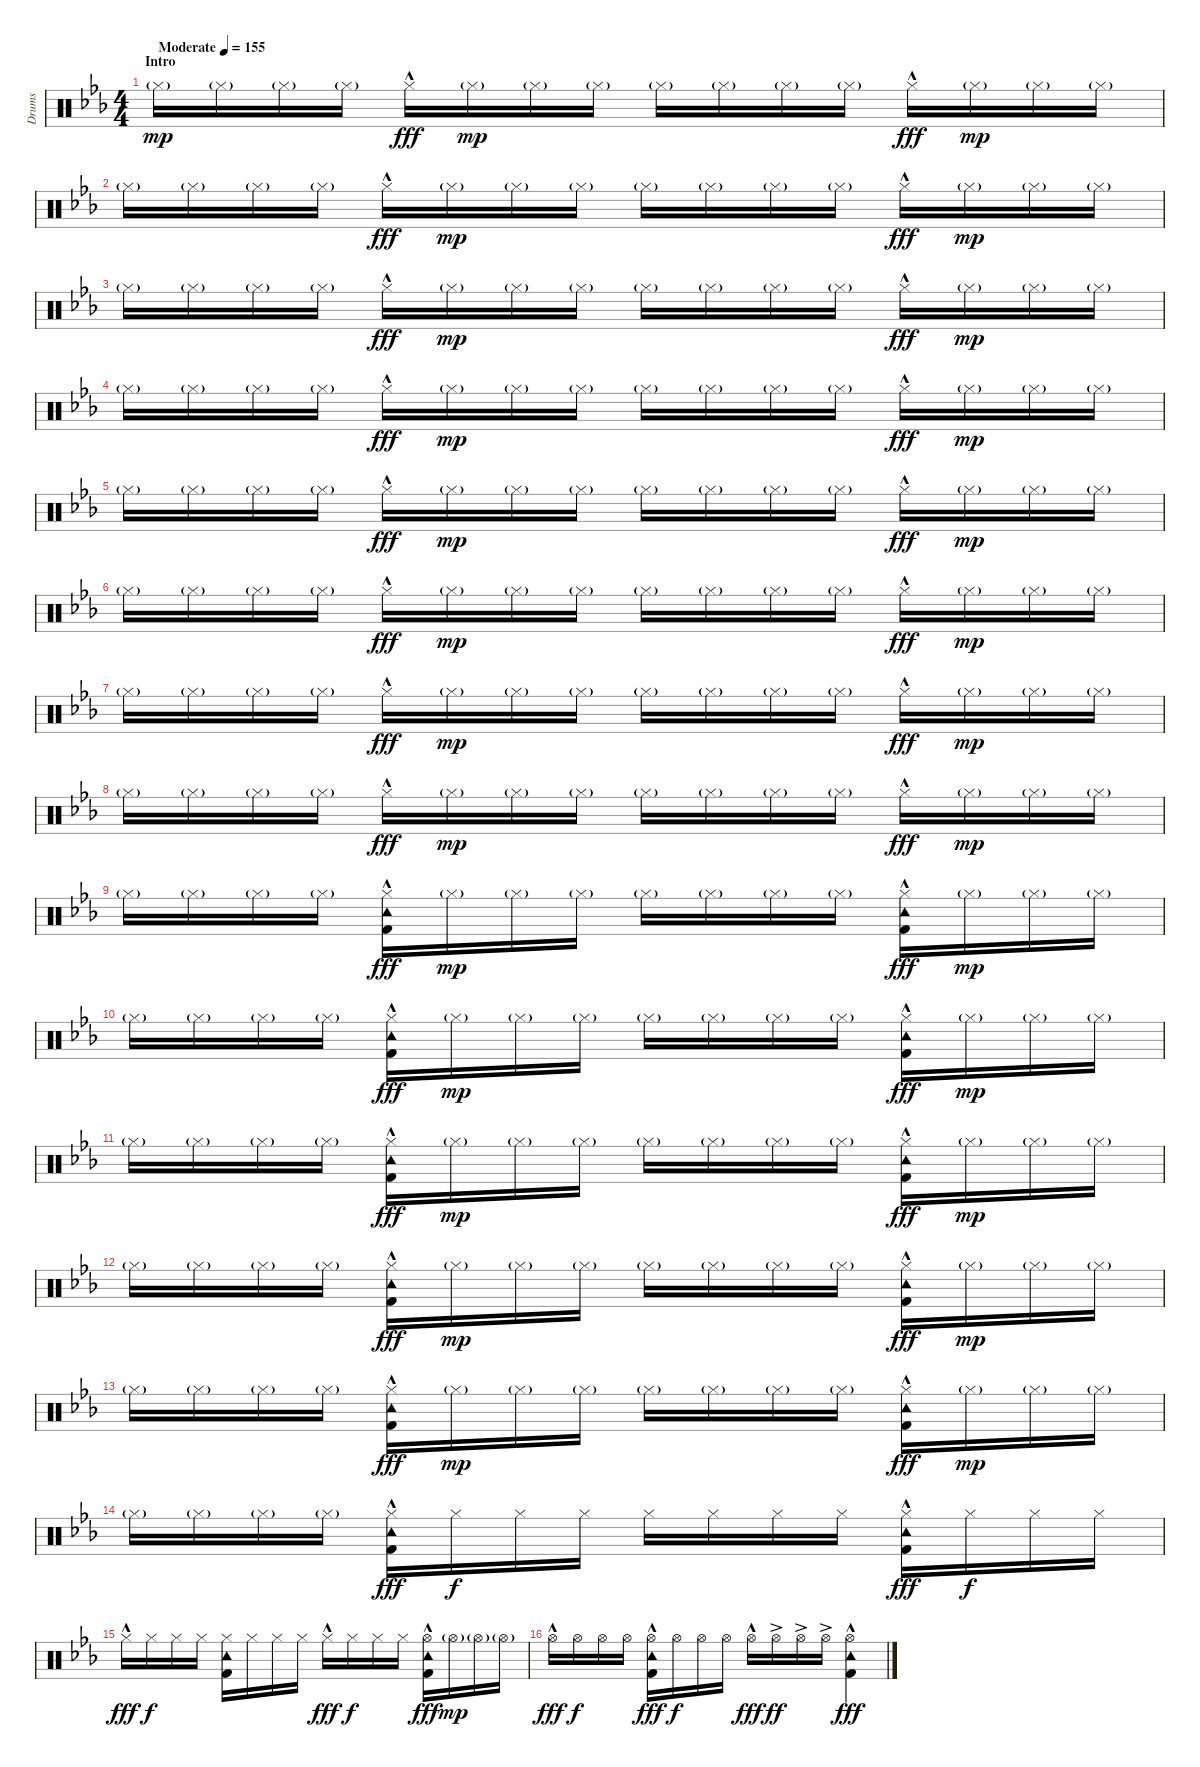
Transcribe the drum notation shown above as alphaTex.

\track ("Drums" "Drums") {instrument percussion}
\staff {score}
\articulation defaults
\ts (4 4)
\section ("" "Intro")
\tempo (155 "Moderate")
\clef neutral
\ks eb "Hi-Hat (closed)"{g}.16{dy mp} "Hi-Hat (closed)"{g}.16 "Hi-Hat (closed)"{g}.16 "Hi-Hat (closed)"{g}.16 "Hi-Hat (closed)"{hac}.16{dy fff} "Hi-Hat (closed)"{g}.16{dy mp} "Hi-Hat (closed)"{g}.16 "Hi-Hat (closed)"{g}.16 "Hi-Hat (closed)"{g}.16 "Hi-Hat (closed)"{g}.16 "Hi-Hat (closed)"{g}.16 "Hi-Hat (closed)"{g}.16 "Hi-Hat (closed)"{hac}.16{dy fff} "Hi-Hat (closed)"{g}.16{dy mp} "Hi-Hat (closed)"{g}.16 "Hi-Hat (closed)"{g}.16
|
"Hi-Hat (closed)"{g}.16 "Hi-Hat (closed)"{g}.16 "Hi-Hat (closed)"{g}.16 "Hi-Hat (closed)"{g}.16 "Hi-Hat (closed)"{hac}.16{dy fff} "Hi-Hat (closed)"{g}.16{dy mp} "Hi-Hat (closed)"{g}.16 "Hi-Hat (closed)"{g}.16 "Hi-Hat (closed)"{g}.16 "Hi-Hat (closed)"{g}.16 "Hi-Hat (closed)"{g}.16 "Hi-Hat (closed)"{g}.16 "Hi-Hat (closed)"{hac}.16{dy fff} "Hi-Hat (closed)"{g}.16{dy mp} "Hi-Hat (closed)"{g}.16 "Hi-Hat (closed)"{g}.16 |
"Hi-Hat (closed)"{g}.16 "Hi-Hat (closed)"{g}.16 "Hi-Hat (closed)"{g}.16 "Hi-Hat (closed)"{g}.16 "Hi-Hat (closed)"{hac}.16{dy fff} "Hi-Hat (closed)"{g}.16{dy mp} "Hi-Hat (closed)"{g}.16 "Hi-Hat (closed)"{g}.16 "Hi-Hat (closed)"{g}.16 "Hi-Hat (closed)"{g}.16 "Hi-Hat (closed)"{g}.16 "Hi-Hat (closed)"{g}.16 "Hi-Hat (closed)"{hac}.16{dy fff} "Hi-Hat (closed)"{g}.16{dy mp} "Hi-Hat (closed)"{g}.16 "Hi-Hat (closed)"{g}.16 |
"Hi-Hat (closed)"{g}.16 "Hi-Hat (closed)"{g}.16 "Hi-Hat (closed)"{g}.16 "Hi-Hat (closed)"{g}.16 "Hi-Hat (closed)"{hac}.16{dy fff} "Hi-Hat (closed)"{g}.16{dy mp} "Hi-Hat (closed)"{g}.16 "Hi-Hat (closed)"{g}.16 "Hi-Hat (closed)"{g}.16 "Hi-Hat (closed)"{g}.16 "Hi-Hat (closed)"{g}.16 "Hi-Hat (closed)"{g}.16 "Hi-Hat (closed)"{hac}.16{dy fff} "Hi-Hat (closed)"{g}.16{dy mp} "Hi-Hat (closed)"{g}.16 "Hi-Hat (closed)"{g}.16 |
"Hi-Hat (closed)"{g}.16 "Hi-Hat (closed)"{g}.16 "Hi-Hat (closed)"{g}.16 "Hi-Hat (closed)"{g}.16 "Hi-Hat (closed)"{hac}.16{dy fff} "Hi-Hat (closed)"{g}.16{dy mp} "Hi-Hat (closed)"{g}.16 "Hi-Hat (closed)"{g}.16 "Hi-Hat (closed)"{g}.16 "Hi-Hat (closed)"{g}.16 "Hi-Hat (closed)"{g}.16 "Hi-Hat (closed)"{g}.16 "Hi-Hat (closed)"{hac}.16{dy fff} "Hi-Hat (closed)"{g}.16{dy mp} "Hi-Hat (closed)"{g}.16 "Hi-Hat (closed)"{g}.16 |
"Hi-Hat (closed)"{g}.16 "Hi-Hat (closed)"{g}.16 "Hi-Hat (closed)"{g}.16 "Hi-Hat (closed)"{g}.16 "Hi-Hat (closed)"{hac}.16{dy fff} "Hi-Hat (closed)"{g}.16{dy mp} "Hi-Hat (closed)"{g}.16 "Hi-Hat (closed)"{g}.16 "Hi-Hat (closed)"{g}.16 "Hi-Hat (closed)"{g}.16 "Hi-Hat (closed)"{g}.16 "Hi-Hat (closed)"{g}.16 "Hi-Hat (closed)"{hac}.16{dy fff} "Hi-Hat (closed)"{g}.16{dy mp} "Hi-Hat (closed)"{g}.16 "Hi-Hat (closed)"{g}.16 |
"Hi-Hat (closed)"{g}.16 "Hi-Hat (closed)"{g}.16 "Hi-Hat (closed)"{g}.16 "Hi-Hat (closed)"{g}.16 "Hi-Hat (closed)"{hac}.16{dy fff} "Hi-Hat (closed)"{g}.16{dy mp} "Hi-Hat (closed)"{g}.16 "Hi-Hat (closed)"{g}.16 "Hi-Hat (closed)"{g}.16 "Hi-Hat (closed)"{g}.16 "Hi-Hat (closed)"{g}.16 "Hi-Hat (closed)"{g}.16 "Hi-Hat (closed)"{hac}.16{dy fff} "Hi-Hat (closed)"{g}.16{dy mp} "Hi-Hat (closed)"{g}.16 "Hi-Hat (closed)"{g}.16 |
"Hi-Hat (closed)"{g}.16 "Hi-Hat (closed)"{g}.16 "Hi-Hat (closed)"{g}.16 "Hi-Hat (closed)"{g}.16 "Hi-Hat (closed)"{hac}.16{dy fff} "Hi-Hat (closed)"{g}.16{dy mp} "Hi-Hat (closed)"{g}.16 "Hi-Hat (closed)"{g}.16 "Hi-Hat (closed)"{g}.16 "Hi-Hat (closed)"{g}.16 "Hi-Hat (closed)"{g}.16 "Hi-Hat (closed)"{g}.16 "Hi-Hat (closed)"{hac}.16{dy fff} "Hi-Hat (closed)"{g}.16{dy mp} "Hi-Hat (closed)"{g}.16 "Hi-Hat (closed)"{g}.16 |
"Hi-Hat (closed)"{g}.16 "Hi-Hat (closed)"{g}.16 "Hi-Hat (closed)"{g}.16 "Hi-Hat (closed)"{g}.16 ("Tambourine (hit)" "Hi-Hat (closed)"{hac} "Kick (hit) 2").16{dy fff} "Hi-Hat (closed)"{g}.16{dy mp} "Hi-Hat (closed)"{g}.16 "Hi-Hat (closed)"{g}.16 "Hi-Hat (closed)"{g}.16 "Hi-Hat (closed)"{g}.16 "Hi-Hat (closed)"{g}.16 "Hi-Hat (closed)"{g}.16 ("Tambourine (hit)" "Hi-Hat (closed)"{hac} "Kick (hit) 2").16{dy fff} "Hi-Hat (closed)"{g}.16{dy mp} "Hi-Hat (closed)"{g}.16 "Hi-Hat (closed)"{g}.16 |
"Hi-Hat (closed)"{g}.16 "Hi-Hat (closed)"{g}.16 "Hi-Hat (closed)"{g}.16 "Hi-Hat (closed)"{g}.16 ("Tambourine (hit)" "Hi-Hat (closed)"{hac} "Kick (hit) 2").16{dy fff} "Hi-Hat (closed)"{g}.16{dy mp} "Hi-Hat (closed)"{g}.16 "Hi-Hat (closed)"{g}.16 "Hi-Hat (closed)"{g}.16 "Hi-Hat (closed)"{g}.16 "Hi-Hat (closed)"{g}.16 "Hi-Hat (closed)"{g}.16 ("Tambourine (hit)" "Hi-Hat (closed)"{hac} "Kick (hit) 2").16{dy fff} "Hi-Hat (closed)"{g}.16{dy mp} "Hi-Hat (closed)"{g}.16 "Hi-Hat (closed)"{g}.16 |
"Hi-Hat (closed)"{g}.16 "Hi-Hat (closed)"{g}.16 "Hi-Hat (closed)"{g}.16 "Hi-Hat (closed)"{g}.16 ("Tambourine (hit)" "Hi-Hat (closed)"{hac} "Kick (hit) 2").16{dy fff} "Hi-Hat (closed)"{g}.16{dy mp} "Hi-Hat (closed)"{g}.16 "Hi-Hat (closed)"{g}.16 "Hi-Hat (closed)"{g}.16 "Hi-Hat (closed)"{g}.16 "Hi-Hat (closed)"{g}.16 "Hi-Hat (closed)"{g}.16 ("Tambourine (hit)" "Hi-Hat (closed)"{hac} "Kick (hit) 2").16{dy fff} "Hi-Hat (closed)"{g}.16{dy mp} "Hi-Hat (closed)"{g}.16 "Hi-Hat (closed)"{g}.16 |
"Hi-Hat (closed)"{g}.16 "Hi-Hat (closed)"{g}.16 "Hi-Hat (closed)"{g}.16 "Hi-Hat (closed)"{g}.16 ("Tambourine (hit)" "Hi-Hat (closed)"{hac} "Kick (hit) 2").16{dy fff} "Hi-Hat (closed)"{g}.16{dy mp} "Hi-Hat (closed)"{g}.16 "Hi-Hat (closed)"{g}.16 "Hi-Hat (closed)"{g}.16 "Hi-Hat (closed)"{g}.16 "Hi-Hat (closed)"{g}.16 "Hi-Hat (closed)"{g}.16 ("Tambourine (hit)" "Hi-Hat (closed)"{hac} "Kick (hit) 2").16{dy fff} "Hi-Hat (closed)"{g}.16{dy mp} "Hi-Hat (closed)"{g}.16 "Hi-Hat (closed)"{g}.16 |
"Hi-Hat (closed)"{g}.16 "Hi-Hat (closed)"{g}.16 "Hi-Hat (closed)"{g}.16 "Hi-Hat (closed)"{g}.16 ("Tambourine (hit)" "Hi-Hat (closed)"{hac} "Kick (hit) 2").16{dy fff} "Hi-Hat (closed)"{g}.16{dy mp} "Hi-Hat (closed)"{g}.16 "Hi-Hat (closed)"{g}.16 "Hi-Hat (closed)"{g}.16 "Hi-Hat (closed)"{g}.16 "Hi-Hat (closed)"{g}.16 "Hi-Hat (closed)"{g}.16 ("Tambourine (hit)" "Hi-Hat (closed)"{hac} "Kick (hit) 2").16{dy fff} "Hi-Hat (closed)"{g}.16{dy mp} "Hi-Hat (closed)"{g}.16 "Hi-Hat (closed)"{g}.16 |
"Hi-Hat (closed)"{g}.16 "Hi-Hat (closed)"{g}.16 "Hi-Hat (closed)"{g}.16 "Hi-Hat (closed)"{g}.16 ("Tambourine (hit)" "Hi-Hat (closed)"{hac} "Kick (hit) 2").16{dy fff} "Hi-Hat (closed)".16{dy f} "Hi-Hat (closed)".16 "Hi-Hat (closed)".16 "Hi-Hat (closed)".16 "Hi-Hat (closed)".16 "Hi-Hat (closed)".16 "Hi-Hat (closed)".16 ("Tambourine (hit)" "Hi-Hat (closed)"{hac} "Kick (hit) 2").16{dy fff} "Hi-Hat (closed)".16{dy f} "Hi-Hat (closed)".16 "Hi-Hat (closed)".16 |
"Hi-Hat (closed)"{hac}.16{dy fff} "Hi-Hat (closed)".16{dy f} "Hi-Hat (closed)".16 "Hi-Hat (closed)".16 ("Tambourine (hit)" "Hi-Hat (closed)" "Kick (hit) 2").16 "Hi-Hat (closed)".16 "Hi-Hat (closed)".16 "Hi-Hat (closed)".16 "Hi-Hat (closed)"{hac}.16{dy fff} "Hi-Hat (closed)".16{dy f} "Hi-Hat (closed)".16 "Hi-Hat (closed)".16 ("Tambourine (hit)" "Hi-Hat (open)"{hac} "Kick (hit) 2").16{dy fff} "Hi-Hat (open)"{g}.16{dy mp} "Hi-Hat (open)"{g}.16 "Hi-Hat (open)"{g}.16 |
"Hi-Hat (open)"{hac}.16{dy fff} "Hi-Hat (open)".16{dy f} "Hi-Hat (open)".16 "Hi-Hat (open)".16 ("Tambourine (hit)" "Hi-Hat (open)"{hac} "Kick (hit) 2").16{dy fff} "Hi-Hat (open)".16{dy f} "Hi-Hat (open)".16 "Hi-Hat (open)".16 "Hi-Hat (open)"{hac}.16{dy fff} "Hi-Hat (open)"{ac}.16{dy ff} "Hi-Hat (open)"{ac}.16 "Hi-Hat (open)"{ac}.16 ("Tambourine (hit)" "Hi-Hat (open)"{hac} "Kick (hit) 2").4{dy fff}
